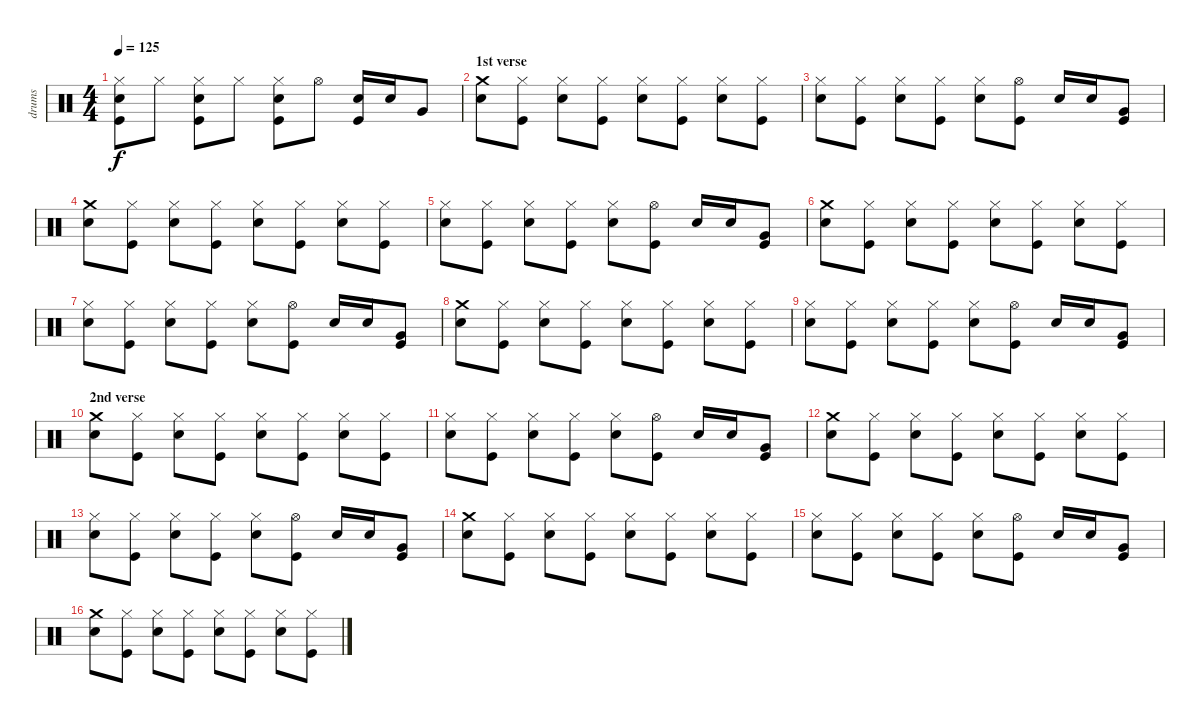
\track ("drums" "drums") {instrument percussion}
\staff {score}
\articulation defaults
\ts (4 4)
\tempo 125
\clef neutral
\ks c
("Hi-Hat (closed)" "Electric Snare (hit)" "Kick (hit)").8{dy f} "Hi-Hat (closed)".8 ("Hi-Hat (closed)" "Electric Snare (hit)" "Kick (hit)").8 "Hi-Hat (closed)".8 ("Hi-Hat (closed)" "Electric Snare (hit)" "Kick (hit)").8 "Hi-Hat (open)".8 ("Electric Snare (hit)" "Kick (hit)").16 "Electric Snare (hit)".16 "Very Low Tom (hit)".8 |
\section ("" "1st verse")
("Crash medium (hit)" "Electric Snare (hit)").8 ("Hi-Hat (closed)" "Kick (hit)").8 ("Hi-Hat (closed)" "Electric Snare (hit)").8 ("Hi-Hat (closed)" "Kick (hit)").8 ("Hi-Hat (closed)" "Electric Snare (hit)").8 ("Hi-Hat (closed)" "Kick (hit)").8 ("Hi-Hat (closed)" "Electric Snare (hit)").8 ("Hi-Hat (closed)" "Kick (hit)").8 |
("Hi-Hat (closed)" "Electric Snare (hit)").8 ("Hi-Hat (closed)" "Kick (hit)").8 ("Hi-Hat (closed)" "Electric Snare (hit)").8 ("Hi-Hat (closed)" "Kick (hit)").8 ("Hi-Hat (closed)" "Electric Snare (hit)").8 ("Hi-Hat (open)" "Kick (hit)").8 "Electric Snare (hit)".16 "Electric Snare (hit)".16 ("Very Low Tom (hit)" "Kick (hit)").8 |
("Crash medium (hit)" "Electric Snare (hit)").8 ("Hi-Hat (closed)" "Kick (hit)").8 ("Hi-Hat (closed)" "Electric Snare (hit)").8 ("Hi-Hat (closed)" "Kick (hit)").8 ("Hi-Hat (closed)" "Electric Snare (hit)").8 ("Hi-Hat (closed)" "Kick (hit)").8 ("Hi-Hat (closed)" "Electric Snare (hit)").8 ("Hi-Hat (closed)" "Kick (hit)").8 |
("Hi-Hat (closed)" "Electric Snare (hit)").8 ("Hi-Hat (closed)" "Kick (hit)").8 ("Hi-Hat (closed)" "Electric Snare (hit)").8 ("Hi-Hat (closed)" "Kick (hit)").8 ("Hi-Hat (closed)" "Electric Snare (hit)").8 ("Hi-Hat (open)" "Kick (hit)").8 "Electric Snare (hit)".16 "Electric Snare (hit)".16 ("Very Low Tom (hit)" "Kick (hit)").8 |
("Crash medium (hit)" "Electric Snare (hit)").8 ("Hi-Hat (closed)" "Kick (hit)").8 ("Hi-Hat (closed)" "Electric Snare (hit)").8 ("Hi-Hat (closed)" "Kick (hit)").8 ("Hi-Hat (closed)" "Electric Snare (hit)").8 ("Hi-Hat (closed)" "Kick (hit)").8 ("Hi-Hat (closed)" "Electric Snare (hit)").8 ("Hi-Hat (closed)" "Kick (hit)").8 |
("Hi-Hat (closed)" "Electric Snare (hit)").8 ("Hi-Hat (closed)" "Kick (hit)").8 ("Hi-Hat (closed)" "Electric Snare (hit)").8 ("Hi-Hat (closed)" "Kick (hit)").8 ("Hi-Hat (closed)" "Electric Snare (hit)").8 ("Hi-Hat (open)" "Kick (hit)").8 "Electric Snare (hit)".16 "Electric Snare (hit)".16 ("Very Low Tom (hit)" "Kick (hit)").8 |
("Crash medium (hit)" "Electric Snare (hit)").8 ("Hi-Hat (closed)" "Kick (hit)").8 ("Hi-Hat (closed)" "Electric Snare (hit)").8 ("Hi-Hat (closed)" "Kick (hit)").8 ("Hi-Hat (closed)" "Electric Snare (hit)").8 ("Hi-Hat (closed)" "Kick (hit)").8 ("Hi-Hat (closed)" "Electric Snare (hit)").8 ("Hi-Hat (closed)" "Kick (hit)").8 |
("Hi-Hat (closed)" "Electric Snare (hit)").8 ("Hi-Hat (closed)" "Kick (hit)").8 ("Hi-Hat (closed)" "Electric Snare (hit)").8 ("Hi-Hat (closed)" "Kick (hit)").8 ("Hi-Hat (closed)" "Electric Snare (hit)").8 ("Hi-Hat (open)" "Kick (hit)").8 "Electric Snare (hit)".16 "Electric Snare (hit)".16 ("Very Low Tom (hit)" "Kick (hit)").8 |
\section ("" "2nd verse")
("Crash medium (hit)" "Electric Snare (hit)").8 ("Hi-Hat (closed)" "Kick (hit)").8 ("Hi-Hat (closed)" "Electric Snare (hit)").8 ("Hi-Hat (closed)" "Kick (hit)").8 ("Hi-Hat (closed)" "Electric Snare (hit)").8 ("Hi-Hat (closed)" "Kick (hit)").8 ("Hi-Hat (closed)" "Electric Snare (hit)").8 ("Hi-Hat (closed)" "Kick (hit)").8 |
("Hi-Hat (closed)" "Electric Snare (hit)").8 ("Hi-Hat (closed)" "Kick (hit)").8 ("Hi-Hat (closed)" "Electric Snare (hit)").8 ("Hi-Hat (closed)" "Kick (hit)").8 ("Hi-Hat (closed)" "Electric Snare (hit)").8 ("Hi-Hat (open)" "Kick (hit)").8 "Electric Snare (hit)".16 "Electric Snare (hit)".16 ("Very Low Tom (hit)" "Kick (hit)").8 |
("Crash medium (hit)" "Electric Snare (hit)").8 ("Hi-Hat (closed)" "Kick (hit)").8 ("Hi-Hat (closed)" "Electric Snare (hit)").8 ("Hi-Hat (closed)" "Kick (hit)").8 ("Hi-Hat (closed)" "Electric Snare (hit)").8 ("Hi-Hat (closed)" "Kick (hit)").8 ("Hi-Hat (closed)" "Electric Snare (hit)").8 ("Hi-Hat (closed)" "Kick (hit)").8 |
("Hi-Hat (closed)" "Electric Snare (hit)").8 ("Hi-Hat (closed)" "Kick (hit)").8 ("Hi-Hat (closed)" "Electric Snare (hit)").8 ("Hi-Hat (closed)" "Kick (hit)").8 ("Hi-Hat (closed)" "Electric Snare (hit)").8 ("Hi-Hat (open)" "Kick (hit)").8 "Electric Snare (hit)".16 "Electric Snare (hit)".16 ("Very Low Tom (hit)" "Kick (hit)").8 |
("Crash medium (hit)" "Electric Snare (hit)").8 ("Hi-Hat (closed)" "Kick (hit)").8 ("Hi-Hat (closed)" "Electric Snare (hit)").8 ("Hi-Hat (closed)" "Kick (hit)").8 ("Hi-Hat (closed)" "Electric Snare (hit)").8 ("Hi-Hat (closed)" "Kick (hit)").8 ("Hi-Hat (closed)" "Electric Snare (hit)").8 ("Hi-Hat (closed)" "Kick (hit)").8 |
("Hi-Hat (closed)" "Electric Snare (hit)").8 ("Hi-Hat (closed)" "Kick (hit)").8 ("Hi-Hat (closed)" "Electric Snare (hit)").8 ("Hi-Hat (closed)" "Kick (hit)").8 ("Hi-Hat (closed)" "Electric Snare (hit)").8 ("Hi-Hat (open)" "Kick (hit)").8 "Electric Snare (hit)".16 "Electric Snare (hit)".16 ("Very Low Tom (hit)" "Kick (hit)").8 |
("Crash medium (hit)" "Electric Snare (hit)").8 ("Hi-Hat (closed)" "Kick (hit)").8 ("Hi-Hat (closed)" "Electric Snare (hit)").8 ("Hi-Hat (closed)" "Kick (hit)").8 ("Hi-Hat (closed)" "Electric Snare (hit)").8 ("Hi-Hat (closed)" "Kick (hit)").8 ("Hi-Hat (closed)" "Electric Snare (hit)").8 ("Hi-Hat (closed)" "Kick (hit)").8
